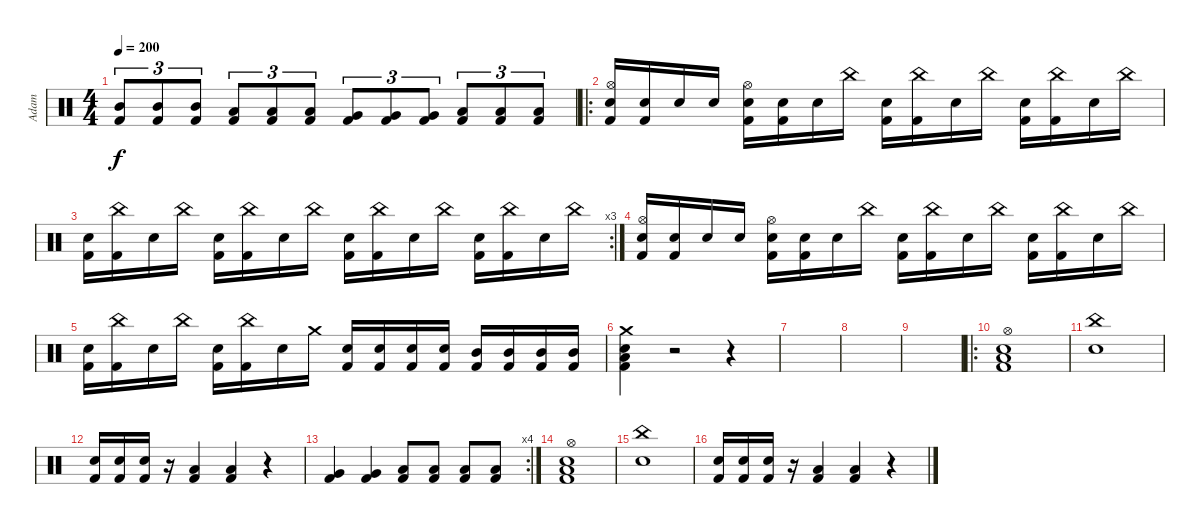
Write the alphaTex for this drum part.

\track ("Adam" "Adam") {instrument percussion}
\staff {score}
\articulation defaults
\ts (4 4)
\tempo 200
\clef neutral
\ks c
("Mid Tom (hit)" "Kick (hit) 2").8{tu (3 2) dy f} ("Mid Tom (hit)" "Kick (hit) 2").8{tu (3 2)} ("Mid Tom (hit)" "Kick (hit) 2").8{tu (3 2)} ("Low Tom (hit)" "Kick (hit) 2").8{tu (3 2)} ("Low Tom (hit)" "Kick (hit) 2").8{tu (3 2)} ("Low Tom (hit)" "Kick (hit) 2").8{tu (3 2)} ("Very Low Tom (hit)" "Kick (hit) 2").8{tu (3 2)} ("Very Low Tom (hit)" "Kick (hit) 2").8{tu (3 2)} ("Very Low Tom (hit)" "Kick (hit) 2").8{tu (3 2)} ("Low Floor Tom (hit)" "Kick (hit) 2").8{tu (3 2)} ("Low Floor Tom (hit)" "Kick (hit) 2").8{tu (3 2)} ("Low Floor Tom (hit)" "Kick (hit) 2").8{tu (3 2)} |
\ro
("Hi-Hat (open)" "Electric Snare (hit)" "Kick (hit) 2").16 ("Electric Snare (hit)" "Kick (hit) 2").16 "Electric Snare (hit)".16 "Electric Snare (hit)".16 ("Hi-Hat (open)" "Electric Snare (hit)" "Kick (hit) 2").16 ("Electric Snare (hit)" "Kick (hit) 2").16 "Electric Snare (hit)".16 "China (hit)".16 ("Electric Snare (hit)" "Kick (hit) 2").16 ("China (hit)" "Kick (hit) 2").16 "Electric Snare (hit)".16 "China (hit)".16 ("Electric Snare (hit)" "Kick (hit) 2").16 ("China (hit)" "Kick (hit) 2").16 "Electric Snare (hit)".16 "China (hit)".16 |
\rc 3
("Electric Snare (hit)" "Kick (hit) 2").16 ("China (hit)" "Kick (hit) 2").16 "Electric Snare (hit)".16 "China (hit)".16 ("Electric Snare (hit)" "Kick (hit) 2").16 ("China (hit)" "Kick (hit) 2").16 "Electric Snare (hit)".16 "China (hit)".16 ("Electric Snare (hit)" "Kick (hit) 2").16 ("China (hit)" "Kick (hit) 2").16 "Electric Snare (hit)".16 "China (hit)".16 ("Electric Snare (hit)" "Kick (hit) 2").16 ("China (hit)" "Kick (hit) 2").16 "Electric Snare (hit)".16 "China (hit)".16 |
("Hi-Hat (open)" "Electric Snare (hit)" "Kick (hit) 2").16 ("Electric Snare (hit)" "Kick (hit) 2").16 "Electric Snare (hit)".16 "Electric Snare (hit)".16 ("Hi-Hat (open)" "Electric Snare (hit)" "Kick (hit) 2").16 ("Electric Snare (hit)" "Kick (hit) 2").16 "Electric Snare (hit)".16 "China (hit)".16 ("Electric Snare (hit)" "Kick (hit) 2").16 ("China (hit)" "Kick (hit) 2").16 "Electric Snare (hit)".16 "China (hit)".16 ("Electric Snare (hit)" "Kick (hit) 2").16 ("China (hit)" "Kick (hit) 2").16 "Electric Snare (hit)".16 "China (hit)".16 |
("Electric Snare (hit)" "Kick (hit) 2").16 ("China (hit)" "Kick (hit) 2").16 "Electric Snare (hit)".16 "China (hit)".16 ("Electric Snare (hit)" "Kick (hit) 2").16 ("China (hit)" "Kick (hit) 2").16 "Electric Snare (hit)".16 "Crash medium (hit)".16 ("Electric Snare (hit)" "Kick (hit) 2").16 ("Electric Snare (hit)" "Kick (hit) 2").16 ("Electric Snare (hit)" "Kick (hit) 2").16 ("Electric Snare (hit)" "Kick (hit) 2").16 ("Mid Tom (hit)" "Kick (hit) 2").16 ("Mid Tom (hit)" "Kick (hit) 2").16 ("Mid Tom (hit)" "Kick (hit) 2").16 ("Mid Tom (hit)" "Kick (hit) 2").16 |
("Crash medium (hit)" "Low Floor Tom (hit)" "Electric Snare (hit)" "Kick (hit) 2").4 r.2 r.4 |
|
|
|
\ro
("Hi-Hat (open)" "Low Floor Tom (hit)" "Electric Snare (hit)" "Kick (hit) 2").1 |
("China (hit)" "Electric Snare (hit)").1 |
("Electric Snare (hit)" "Kick (hit) 2").16 ("Electric Snare (hit)" "Kick (hit) 2").16 ("Electric Snare (hit)" "Kick (hit) 2").16 r.16 ("Low Tom (hit)" "Kick (hit) 2").4 ("Low Tom (hit)" "Kick (hit) 2").4 r.4 |
\rc 4
("Very Low Tom (hit)" "Kick (hit) 2").4 ("Very Low Tom (hit)" "Kick (hit) 2").4 ("Low Floor Tom (hit)" "Kick (hit) 2").8 ("Low Floor Tom (hit)" "Kick (hit) 2").8 ("Low Floor Tom (hit)" "Kick (hit) 2").8 ("Low Floor Tom (hit)" "Kick (hit) 2").8 |
("Hi-Hat (open)" "Low Floor Tom (hit)" "Electric Snare (hit)" "Kick (hit) 2").1 |
("China (hit)" "Electric Snare (hit)").1 |
("Electric Snare (hit)" "Kick (hit) 2").16 ("Electric Snare (hit)" "Kick (hit) 2").16 ("Electric Snare (hit)" "Kick (hit) 2").16 r.16 ("Low Tom (hit)" "Kick (hit) 2").4 ("Low Tom (hit)" "Kick (hit) 2").4 r.4
